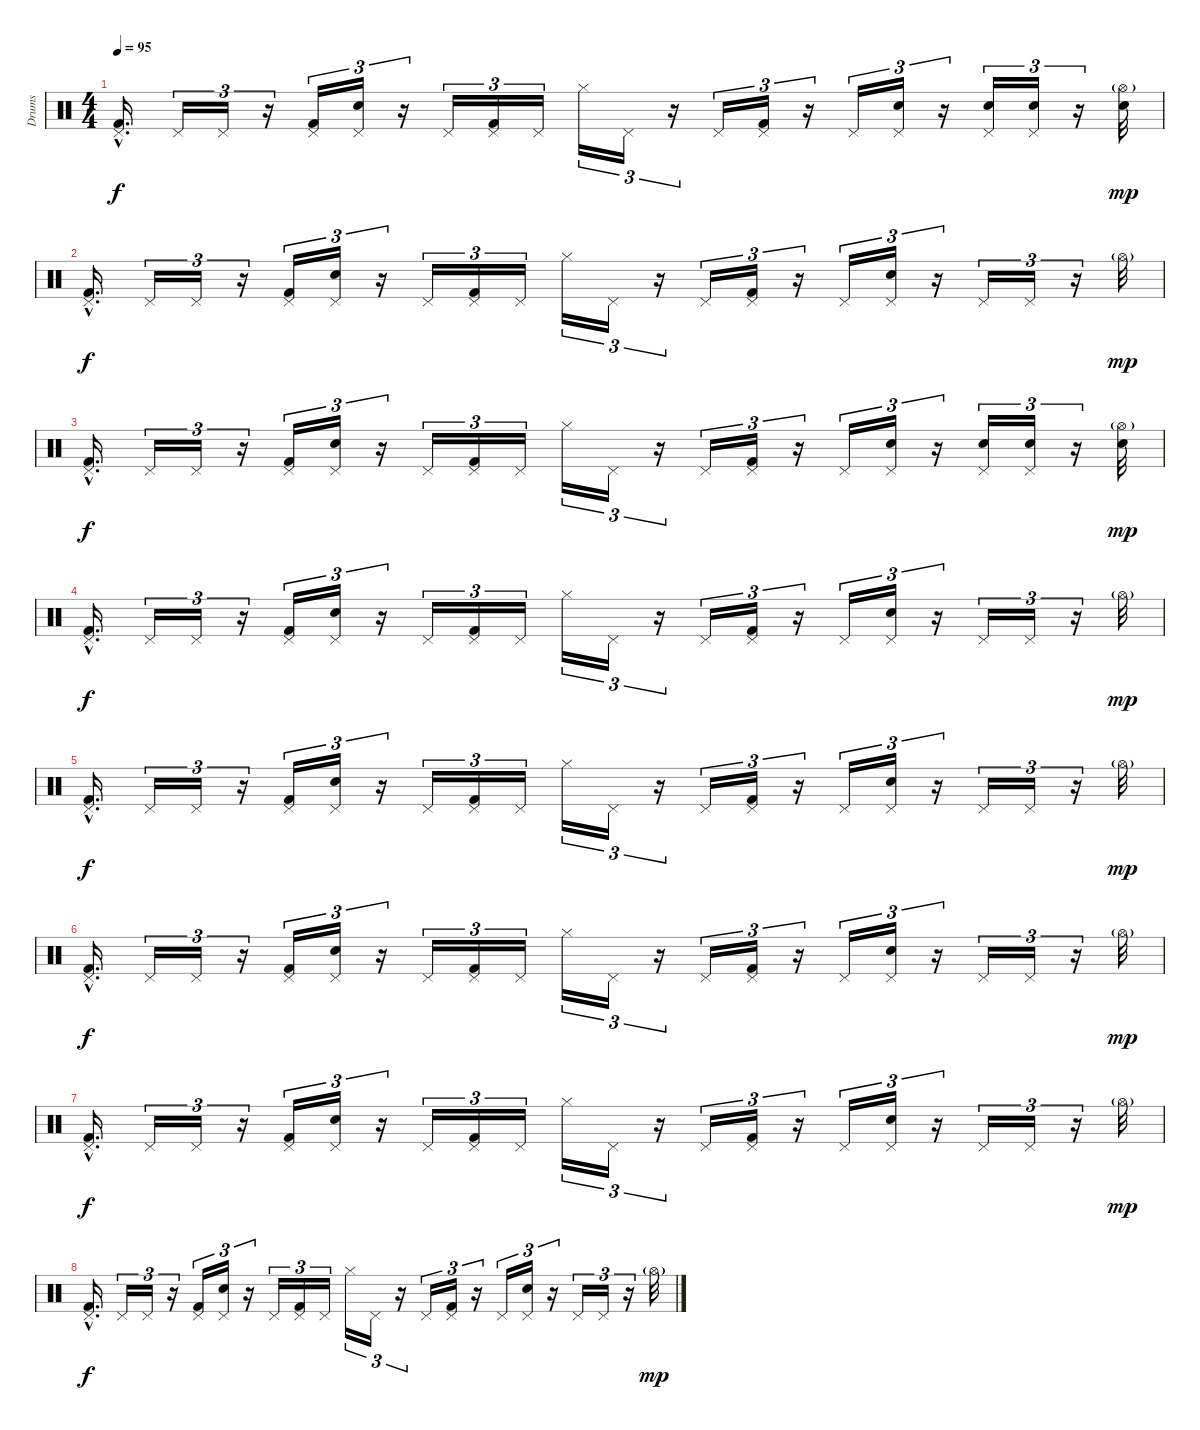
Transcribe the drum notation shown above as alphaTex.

\track ("Drums" "Drums") {instrument percussion}
\staff {score}
\articulation defaults
\ts (4 4)
\tempo 95
\clef neutral
\ks c
("Pedal Hi-Hat (hit)"{hac} "Kick (hit) 2"{hac}).16{d dy f} "Pedal Hi-Hat (hit)".16{tu (3 2)} "Pedal Hi-Hat (hit)".16{tu (3 2)} r.16{tu (3 2)} ("Pedal Hi-Hat (hit)" "Kick (hit) 2").16{tu (3 2)} ("Pedal Hi-Hat (hit)" "Electric Snare (hit)").16{tu (3 2)} r.16{tu (3 2)} "Pedal Hi-Hat (hit)".16{tu (3 2)} ("Pedal Hi-Hat (hit)" "Kick (hit) 2").16{tu (3 2)} "Pedal Hi-Hat (hit)".16{tu (3 2)} "Hi-Hat (closed)".16{tu (3 2)} "Pedal Hi-Hat (hit)".16{tu (3 2)} r.16{tu (3 2)} "Pedal Hi-Hat (hit)".16{tu (3 2)} ("Pedal Hi-Hat (hit)" "Kick (hit) 2").16{tu (3 2)} r.16{tu (3 2)} "Pedal Hi-Hat (hit)".16{tu (3 2)} ("Pedal Hi-Hat (hit)" "Electric Snare (hit)").16{tu (3 2)} r.16{tu (3 2)} ("Pedal Hi-Hat (hit)" "Electric Snare (hit)").16{tu (3 2)} ("Pedal Hi-Hat (hit)" "Electric Snare (hit)").16{tu (3 2)} r.16{tu (3 2)} ("Hi-Hat (open)"{g} "Electric Snare (hit)").32{dy mp} |
("Pedal Hi-Hat (hit)"{hac} "Kick (hit) 2"{hac}).16{d dy f} "Pedal Hi-Hat (hit)".16{tu (3 2)} "Pedal Hi-Hat (hit)".16{tu (3 2)} r.16{tu (3 2)} ("Pedal Hi-Hat (hit)" "Kick (hit) 2").16{tu (3 2)} ("Pedal Hi-Hat (hit)" "Electric Snare (hit)").16{tu (3 2)} r.16{tu (3 2)} "Pedal Hi-Hat (hit)".16{tu (3 2)} ("Pedal Hi-Hat (hit)" "Kick (hit) 2").16{tu (3 2)} "Pedal Hi-Hat (hit)".16{tu (3 2)} "Hi-Hat (closed)".16{tu (3 2)} "Pedal Hi-Hat (hit)".16{tu (3 2)} r.16{tu (3 2)} "Pedal Hi-Hat (hit)".16{tu (3 2)} ("Pedal Hi-Hat (hit)" "Kick (hit) 2").16{tu (3 2)} r.16{tu (3 2)} "Pedal Hi-Hat (hit)".16{tu (3 2)} ("Pedal Hi-Hat (hit)" "Electric Snare (hit)").16{tu (3 2)} r.16{tu (3 2)} "Pedal Hi-Hat (hit)".16{tu (3 2)} "Pedal Hi-Hat (hit)".16{tu (3 2)} r.16{tu (3 2)} "Hi-Hat (open)"{g}.32{dy mp} |
("Pedal Hi-Hat (hit)"{hac} "Kick (hit) 2"{hac}).16{d dy f} "Pedal Hi-Hat (hit)".16{tu (3 2)} "Pedal Hi-Hat (hit)".16{tu (3 2)} r.16{tu (3 2)} ("Pedal Hi-Hat (hit)" "Kick (hit) 2").16{tu (3 2)} ("Pedal Hi-Hat (hit)" "Electric Snare (hit)").16{tu (3 2)} r.16{tu (3 2)} "Pedal Hi-Hat (hit)".16{tu (3 2)} ("Pedal Hi-Hat (hit)" "Kick (hit) 2").16{tu (3 2)} "Pedal Hi-Hat (hit)".16{tu (3 2)} "Hi-Hat (closed)".16{tu (3 2)} "Pedal Hi-Hat (hit)".16{tu (3 2)} r.16{tu (3 2)} "Pedal Hi-Hat (hit)".16{tu (3 2)} ("Pedal Hi-Hat (hit)" "Kick (hit) 2").16{tu (3 2)} r.16{tu (3 2)} "Pedal Hi-Hat (hit)".16{tu (3 2)} ("Pedal Hi-Hat (hit)" "Electric Snare (hit)").16{tu (3 2)} r.16{tu (3 2)} ("Pedal Hi-Hat (hit)" "Electric Snare (hit)").16{tu (3 2)} ("Pedal Hi-Hat (hit)" "Electric Snare (hit)").16{tu (3 2)} r.16{tu (3 2)} ("Hi-Hat (open)"{g} "Electric Snare (hit)").32{dy mp} |
("Pedal Hi-Hat (hit)"{hac} "Kick (hit) 2"{hac}).16{d dy f} "Pedal Hi-Hat (hit)".16{tu (3 2)} "Pedal Hi-Hat (hit)".16{tu (3 2)} r.16{tu (3 2)} ("Pedal Hi-Hat (hit)" "Kick (hit) 2").16{tu (3 2)} ("Pedal Hi-Hat (hit)" "Electric Snare (hit)").16{tu (3 2)} r.16{tu (3 2)} "Pedal Hi-Hat (hit)".16{tu (3 2)} ("Pedal Hi-Hat (hit)" "Kick (hit) 2").16{tu (3 2)} "Pedal Hi-Hat (hit)".16{tu (3 2)} "Hi-Hat (closed)".16{tu (3 2)} "Pedal Hi-Hat (hit)".16{tu (3 2)} r.16{tu (3 2)} "Pedal Hi-Hat (hit)".16{tu (3 2)} ("Pedal Hi-Hat (hit)" "Kick (hit) 2").16{tu (3 2)} r.16{tu (3 2)} "Pedal Hi-Hat (hit)".16{tu (3 2)} ("Pedal Hi-Hat (hit)" "Electric Snare (hit)").16{tu (3 2)} r.16{tu (3 2)} "Pedal Hi-Hat (hit)".16{tu (3 2)} "Pedal Hi-Hat (hit)".16{tu (3 2)} r.16{tu (3 2)} "Hi-Hat (open)"{g}.32{dy mp} |
("Pedal Hi-Hat (hit)"{hac} "Kick (hit) 2"{hac}).16{d dy f} "Pedal Hi-Hat (hit)".16{tu (3 2)} "Pedal Hi-Hat (hit)".16{tu (3 2)} r.16{tu (3 2)} ("Pedal Hi-Hat (hit)" "Kick (hit) 2").16{tu (3 2)} ("Pedal Hi-Hat (hit)" "Electric Snare (hit)").16{tu (3 2)} r.16{tu (3 2)} "Pedal Hi-Hat (hit)".16{tu (3 2)} ("Pedal Hi-Hat (hit)" "Kick (hit) 2").16{tu (3 2)} "Pedal Hi-Hat (hit)".16{tu (3 2)} "Hi-Hat (closed)".16{tu (3 2)} "Pedal Hi-Hat (hit)".16{tu (3 2)} r.16{tu (3 2)} "Pedal Hi-Hat (hit)".16{tu (3 2)} ("Pedal Hi-Hat (hit)" "Kick (hit) 2").16{tu (3 2)} r.16{tu (3 2)} "Pedal Hi-Hat (hit)".16{tu (3 2)} ("Pedal Hi-Hat (hit)" "Electric Snare (hit)").16{tu (3 2)} r.16{tu (3 2)} "Pedal Hi-Hat (hit)".16{tu (3 2)} "Pedal Hi-Hat (hit)".16{tu (3 2)} r.16{tu (3 2)} "Hi-Hat (open)"{g}.32{dy mp} |
("Pedal Hi-Hat (hit)"{hac} "Kick (hit) 2"{hac}).16{d dy f volume 13} "Pedal Hi-Hat (hit)".16{tu (3 2)} "Pedal Hi-Hat (hit)".16{tu (3 2)} r.16{tu (3 2)} ("Pedal Hi-Hat (hit)" "Kick (hit) 2").16{tu (3 2)} ("Pedal Hi-Hat (hit)" "Electric Snare (hit)").16{tu (3 2)} r.16{tu (3 2)} "Pedal Hi-Hat (hit)".16{tu (3 2)} ("Pedal Hi-Hat (hit)" "Kick (hit) 2").16{tu (3 2)} "Pedal Hi-Hat (hit)".16{tu (3 2)} "Hi-Hat (closed)".16{tu (3 2)} "Pedal Hi-Hat (hit)".16{tu (3 2)} r.16{tu (3 2)} "Pedal Hi-Hat (hit)".16{tu (3 2)} ("Pedal Hi-Hat (hit)" "Kick (hit) 2").16{tu (3 2)} r.16{tu (3 2)} "Pedal Hi-Hat (hit)".16{tu (3 2)} ("Pedal Hi-Hat (hit)" "Electric Snare (hit)").16{tu (3 2)} r.16{tu (3 2)} "Pedal Hi-Hat (hit)".16{tu (3 2)} "Pedal Hi-Hat (hit)".16{tu (3 2)} r.16{tu (3 2)} "Hi-Hat (open)"{g}.32{dy mp} |
("Pedal Hi-Hat (hit)"{hac} "Kick (hit) 2"{hac}).16{d dy f} "Pedal Hi-Hat (hit)".16{tu (3 2)} "Pedal Hi-Hat (hit)".16{tu (3 2)} r.16{tu (3 2)} ("Pedal Hi-Hat (hit)" "Kick (hit) 2").16{tu (3 2)} ("Pedal Hi-Hat (hit)" "Electric Snare (hit)").16{tu (3 2)} r.16{tu (3 2)} "Pedal Hi-Hat (hit)".16{tu (3 2)} ("Pedal Hi-Hat (hit)" "Kick (hit) 2").16{tu (3 2)} "Pedal Hi-Hat (hit)".16{tu (3 2)} "Hi-Hat (closed)".16{tu (3 2)} "Pedal Hi-Hat (hit)".16{tu (3 2)} r.16{tu (3 2)} "Pedal Hi-Hat (hit)".16{tu (3 2)} ("Pedal Hi-Hat (hit)" "Kick (hit) 2").16{tu (3 2)} r.16{tu (3 2)} "Pedal Hi-Hat (hit)".16{tu (3 2)} ("Pedal Hi-Hat (hit)" "Electric Snare (hit)").16{tu (3 2)} r.16{tu (3 2)} "Pedal Hi-Hat (hit)".16{tu (3 2)} "Pedal Hi-Hat (hit)".16{tu (3 2)} r.16{tu (3 2)} "Hi-Hat (open)"{g}.32{dy mp} |
("Pedal Hi-Hat (hit)"{hac} "Kick (hit) 2"{hac}).16{d dy f} "Pedal Hi-Hat (hit)".16{tu (3 2)} "Pedal Hi-Hat (hit)".16{tu (3 2)} r.16{tu (3 2)} ("Pedal Hi-Hat (hit)" "Kick (hit) 2").16{tu (3 2)} ("Pedal Hi-Hat (hit)" "Electric Snare (hit)").16{tu (3 2)} r.16{tu (3 2)} "Pedal Hi-Hat (hit)".16{tu (3 2)} ("Pedal Hi-Hat (hit)" "Kick (hit) 2").16{tu (3 2)} "Pedal Hi-Hat (hit)".16{tu (3 2)} "Hi-Hat (closed)".16{tu (3 2)} "Pedal Hi-Hat (hit)".16{tu (3 2)} r.16{tu (3 2)} "Pedal Hi-Hat (hit)".16{tu (3 2)} ("Pedal Hi-Hat (hit)" "Kick (hit) 2").16{tu (3 2)} r.16{tu (3 2)} "Pedal Hi-Hat (hit)".16{tu (3 2)} ("Pedal Hi-Hat (hit)" "Electric Snare (hit)").16{tu (3 2)} r.16{tu (3 2)} "Pedal Hi-Hat (hit)".16{tu (3 2)} "Pedal Hi-Hat (hit)".16{tu (3 2)} r.16{tu (3 2)} "Hi-Hat (open)"{g}.32{dy mp}
